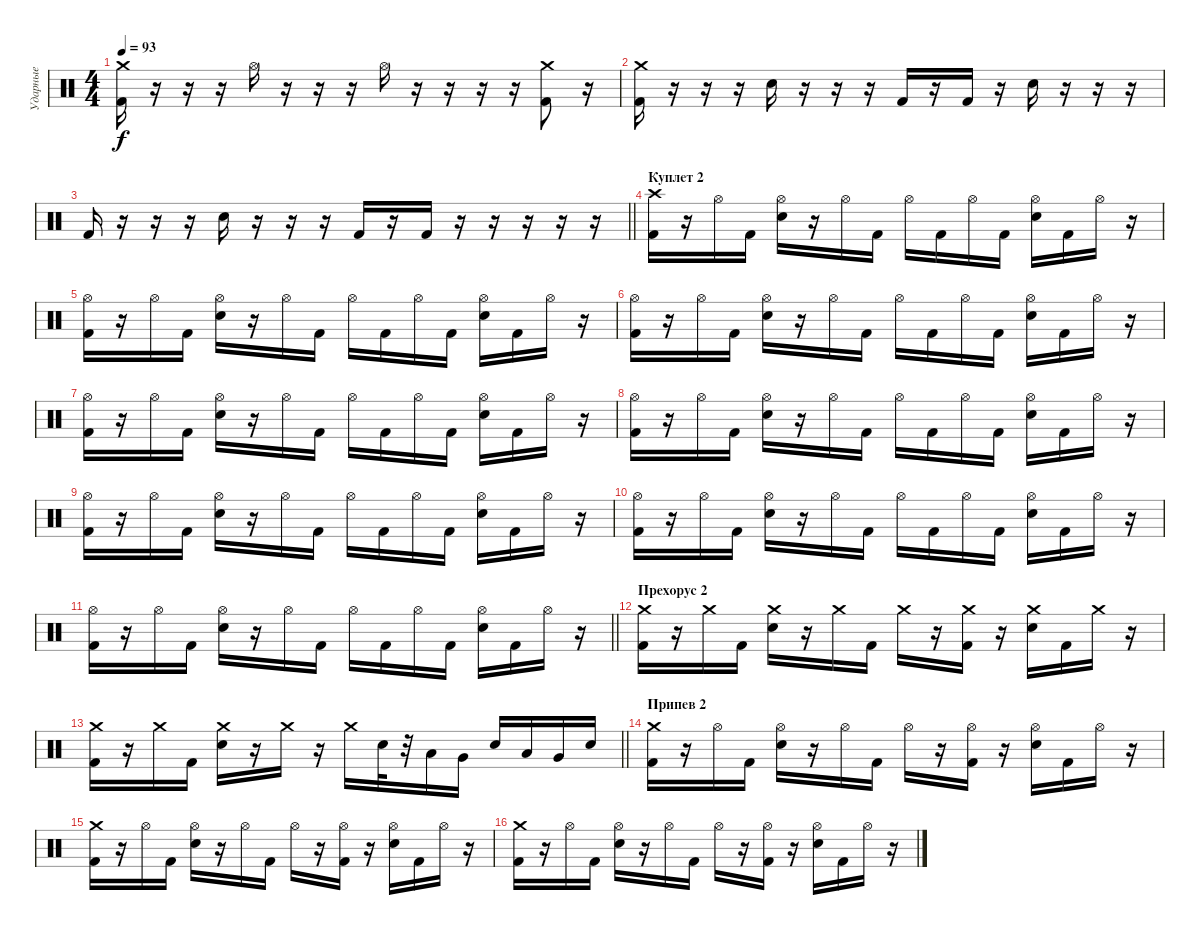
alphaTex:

\track ("Ударные" "Ударные") {instrument percussion}
\staff {score}
\articulation defaults
\ts (4 4)
\tempo 93
\clef neutral
\ks c
("Crash medium (hit)" "Kick (hit) 2").16{dy f} r.16 r.16 r.16 "Hi-Hat (open)".16 r.16 r.16 r.16 "Hi-Hat (open)".16 r.16 r.16 r.16 r.16 ("Crash medium (hit)" "Kick (hit) 2").8 r.16 |
("Crash medium (hit)" "Kick (hit) 2").16 r.16 r.16 r.16 "Electric Snare (hit)".16 r.16 r.16 r.16 "Kick (hit) 2".16 r.16 "Kick (hit) 2".16 r.16 "Electric Snare (hit)".16 r.16 r.16 r.16 |
\barLineRight lightlight "Kick (hit) 2".16
r.16 r.16 r.16 "Electric Snare (hit)".16 r.16 r.16 r.16 "Kick (hit) 2".16 r.16 "Kick (hit) 2".16 r.16 r.16 r.16 r.16 r.16 |
\section ("" "Куплет 2")
("Crash high (hit)" "Kick (hit) 2").16 r.16 "Hi-Hat (open)".16 "Kick (hit) 2".16 ("Hi-Hat (open)" "Electric Snare (hit)").16 r.16 "Hi-Hat (open)".16 "Kick (hit) 2".16 "Hi-Hat (open)".16 "Kick (hit) 2".16 "Hi-Hat (open)".16 "Kick (hit) 2".16 ("Hi-Hat (open)" "Electric Snare (hit)").16 "Kick (hit) 2".16 "Hi-Hat (open)".16 r.16 |
("Hi-Hat (open)" "Kick (hit) 2").16 r.16 "Hi-Hat (open)".16 "Kick (hit) 2".16 ("Hi-Hat (open)" "Electric Snare (hit)").16 r.16 "Hi-Hat (open)".16 "Kick (hit) 2".16 "Hi-Hat (open)".16 "Kick (hit) 2".16 "Hi-Hat (open)".16 "Kick (hit) 2".16 ("Hi-Hat (open)" "Electric Snare (hit)").16 "Kick (hit) 2".16 "Hi-Hat (open)".16 r.16 |
("Hi-Hat (open)" "Kick (hit) 2").16 r.16 "Hi-Hat (open)".16 "Kick (hit) 2".16 ("Hi-Hat (open)" "Electric Snare (hit)").16 r.16 "Hi-Hat (open)".16 "Kick (hit) 2".16 "Hi-Hat (open)".16 "Kick (hit) 2".16 "Hi-Hat (open)".16 "Kick (hit) 2".16 ("Hi-Hat (open)" "Electric Snare (hit)").16 "Kick (hit) 2".16 "Hi-Hat (open)".16 r.16 |
("Hi-Hat (open)" "Kick (hit) 2").16 r.16 "Hi-Hat (open)".16 "Kick (hit) 2".16 ("Hi-Hat (open)" "Electric Snare (hit)").16 r.16 "Hi-Hat (open)".16 "Kick (hit) 2".16 "Hi-Hat (open)".16 "Kick (hit) 2".16 "Hi-Hat (open)".16 "Kick (hit) 2".16 ("Hi-Hat (open)" "Electric Snare (hit)").16 "Kick (hit) 2".16 "Hi-Hat (open)".16 r.16 |
("Hi-Hat (open)" "Kick (hit) 2").16 r.16 "Hi-Hat (open)".16 "Kick (hit) 2".16 ("Hi-Hat (open)" "Electric Snare (hit)").16 r.16 "Hi-Hat (open)".16 "Kick (hit) 2".16 "Hi-Hat (open)".16 "Kick (hit) 2".16 "Hi-Hat (open)".16 "Kick (hit) 2".16 ("Hi-Hat (open)" "Electric Snare (hit)").16 "Kick (hit) 2".16 "Hi-Hat (open)".16 r.16 |
("Hi-Hat (open)" "Kick (hit) 2").16 r.16 "Hi-Hat (open)".16 "Kick (hit) 2".16 ("Hi-Hat (open)" "Electric Snare (hit)").16 r.16 "Hi-Hat (open)".16 "Kick (hit) 2".16 "Hi-Hat (open)".16 "Kick (hit) 2".16 "Hi-Hat (open)".16 "Kick (hit) 2".16 ("Hi-Hat (open)" "Electric Snare (hit)").16 "Kick (hit) 2".16 "Hi-Hat (open)".16 r.16 |
("Hi-Hat (open)" "Kick (hit) 2").16 r.16 "Hi-Hat (open)".16 "Kick (hit) 2".16 ("Hi-Hat (open)" "Electric Snare (hit)").16 r.16 "Hi-Hat (open)".16 "Kick (hit) 2".16 "Hi-Hat (open)".16 "Kick (hit) 2".16 "Hi-Hat (open)".16 "Kick (hit) 2".16 ("Hi-Hat (open)" "Electric Snare (hit)").16 "Kick (hit) 2".16 "Hi-Hat (open)".16 r.16 |
\barLineRight lightlight
("Hi-Hat (open)" "Kick (hit) 2").16 r.16 "Hi-Hat (open)".16 "Kick (hit) 2".16 ("Hi-Hat (open)" "Electric Snare (hit)").16 r.16 "Hi-Hat (open)".16 "Kick (hit) 2".16 "Hi-Hat (open)".16 "Kick (hit) 2".16 "Hi-Hat (open)".16 "Kick (hit) 2".16 ("Hi-Hat (open)" "Electric Snare (hit)").16 "Kick (hit) 2".16 "Hi-Hat (open)".16 r.16 |
\section ("" "Прехорус 2")
("Crash medium (hit)" "Kick (hit) 2").16 r.16 "Crash medium (hit)".16 "Kick (hit) 2".16 ("Crash medium (hit)" "Electric Snare (hit)").16 r.16 "Crash medium (hit)".16 "Kick (hit) 2".16 "Crash medium (hit)".16 r.16 ("Crash medium (hit)" "Kick (hit) 2").16 r.16 ("Crash medium (hit)" "Electric Snare (hit)").16 "Kick (hit) 2".16 "Crash medium (hit)".16 r.16 |
\barLineRight lightlight
("Crash medium (hit)" "Kick (hit) 2").16 r.16 "Crash medium (hit)".16 "Kick (hit) 2".16 ("Crash medium (hit)" "Electric Snare (hit)").16 r.16 "Crash medium (hit)".16 r.16 "Crash medium (hit)".16 "Electric Snare (hit)".32 r.32 "Low Tom (hit)".16 "Very Low Tom (hit)".16 "Electric Snare (hit)".16 "Low Tom (hit)".16 "Very Low Tom (hit)".16 "Electric Snare (hit)".16 |
\section ("" "Припев 2")
("Crash medium (hit)" "Kick (hit) 2").16 r.16 "Hi-Hat (open)".16 "Kick (hit) 2".16 ("Hi-Hat (open)" "Electric Snare (hit)").16 r.16 "Hi-Hat (open)".16 "Kick (hit) 2".16 "Hi-Hat (open)".16 r.16 ("Hi-Hat (open)" "Kick (hit) 2").16 r.16 ("Hi-Hat (open)" "Electric Snare (hit)").16 "Kick (hit) 2".16 "Hi-Hat (open)".16 r.16 |
("Crash medium (hit)" "Kick (hit) 2").16 r.16 "Hi-Hat (open)".16 "Kick (hit) 2".16 ("Hi-Hat (open)" "Electric Snare (hit)").16 r.16 "Hi-Hat (open)".16 "Kick (hit) 2".16 "Hi-Hat (open)".16 r.16 ("Hi-Hat (open)" "Kick (hit) 2").16 r.16 ("Hi-Hat (open)" "Electric Snare (hit)").16 "Kick (hit) 2".16 "Hi-Hat (open)".16 r.16 |
("Crash medium (hit)" "Kick (hit) 2").16 r.16 "Hi-Hat (open)".16 "Kick (hit) 2".16 ("Hi-Hat (open)" "Electric Snare (hit)").16 r.16 "Hi-Hat (open)".16 "Kick (hit) 2".16 "Hi-Hat (open)".16 r.16 ("Hi-Hat (open)" "Kick (hit) 2").16 r.16 ("Hi-Hat (open)" "Electric Snare (hit)").16 "Kick (hit) 2".16 "Hi-Hat (open)".16 r.16
